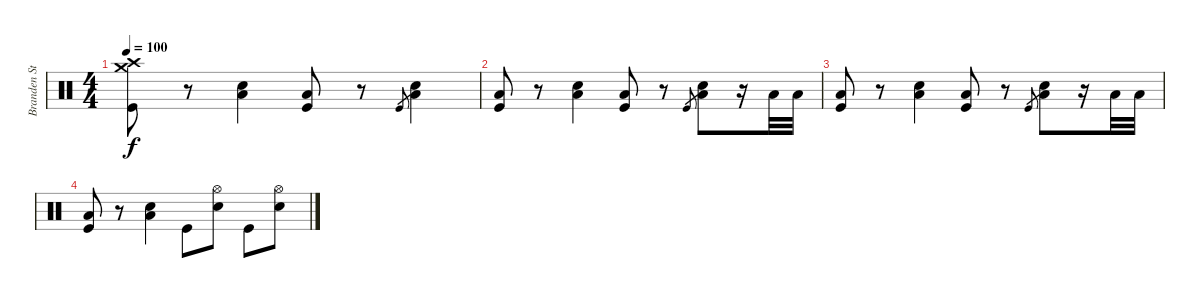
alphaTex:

\track ("Branden Steineckert-drums" "Branden St") {instrument percussion}
\staff {score}
\articulation defaults
\ts (4 4)
\tempo 100
\clef neutral
\ks c
("Crash medium (hit)" "Crash high (hit)" "Kick (hit)").8{dy f} r.8 ("Snare (hit) 2" "Low Floor Tom (hit)").4 ("Low Floor Tom (hit)" "Kick (hit)").8 r.8 "Kick (hit)".8{gr} ("Snare (hit) 2" "Low Floor Tom (hit)").4 |
("Low Floor Tom (hit)" "Kick (hit)").8 r.8 ("Snare (hit) 2" "Low Floor Tom (hit)").4 ("Low Floor Tom (hit)" "Kick (hit)").8 r.8 "Kick (hit)".8{gr} ("Snare (hit) 2" "Low Floor Tom (hit)").8 r.16 "Low Floor Tom (hit)".32 "Low Floor Tom (hit)".32 |
("Low Floor Tom (hit)" "Kick (hit)").8 r.8 ("Snare (hit) 2" "Low Floor Tom (hit)").4 ("Low Floor Tom (hit)" "Kick (hit)").8 r.8 "Kick (hit)".8{gr} ("Snare (hit) 2" "Low Floor Tom (hit)").8 r.16 "Low Floor Tom (hit)".32 "Low Floor Tom (hit)".32 |
("Low Floor Tom (hit)" "Kick (hit)").8 r.8 ("Snare (hit) 2" "Low Floor Tom (hit)").4 "Kick (hit)".8 ("Hi-Hat (open)" "Snare (hit) 2").8 "Kick (hit)".8 ("Hi-Hat (open)" "Snare (hit) 2").8
